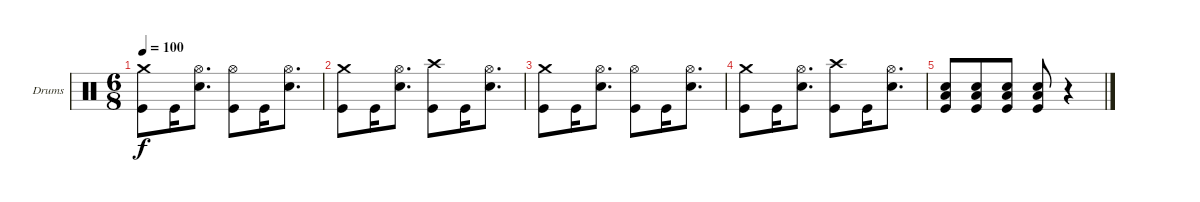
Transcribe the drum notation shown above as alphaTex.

\defaultSystemsLayout 4
\bracketExtendMode groupsimilarinstruments
\firstSystemTrackNameOrientation horizontal
\otherSystemsTrackNameOrientation horizontal
\track ("Stefan Schwarzmann" "Drums") {instrument percussion}
\staff {score}
\articulation defaults
\ts (6 8)
\tempo 100
\clef neutral
\ks c
("Kick (hit)" "Crash medium (hit)").8{dy f} "Kick (hit)".16 ("Snare (hit) 2" "Hi-Hat (open)").8{d} ("Kick (hit)" "Hi-Hat (open)").8 "Kick (hit)".16 ("Snare (hit) 2" "Hi-Hat (open)").8{d} |
("Kick (hit)" "Crash medium (hit)").8 "Kick (hit)".16 ("Snare (hit) 2" "Hi-Hat (open)").8{d} ("Kick (hit)" "Crash high (hit)").8 "Kick (hit)".16 ("Snare (hit) 2" "Hi-Hat (open)").8{d} |
("Kick (hit)" "Crash medium (hit)").8 "Kick (hit)".16 ("Snare (hit) 2" "Hi-Hat (open)").8{d} ("Kick (hit)" "Hi-Hat (open)").8 "Kick (hit)".16 ("Snare (hit) 2" "Hi-Hat (open)").8{d} |
("Kick (hit)" "Crash medium (hit)").8 "Kick (hit)".16 ("Snare (hit) 2" "Hi-Hat (open)").8{d} ("Kick (hit)" "Crash high (hit)").8 "Kick (hit)".16 ("Snare (hit) 2" "Hi-Hat (open)").8{d} |
("Kick (hit)" "Snare (hit) 2" "Low Tom (hit)").8 ("Kick (hit)" "Snare (hit) 2" "Low Tom (hit)").8 ("Kick (hit)" "Snare (hit) 2" "Low Tom (hit)").8 ("Kick (hit)" "Snare (hit) 2" "Low Tom (hit)").8 r.4
